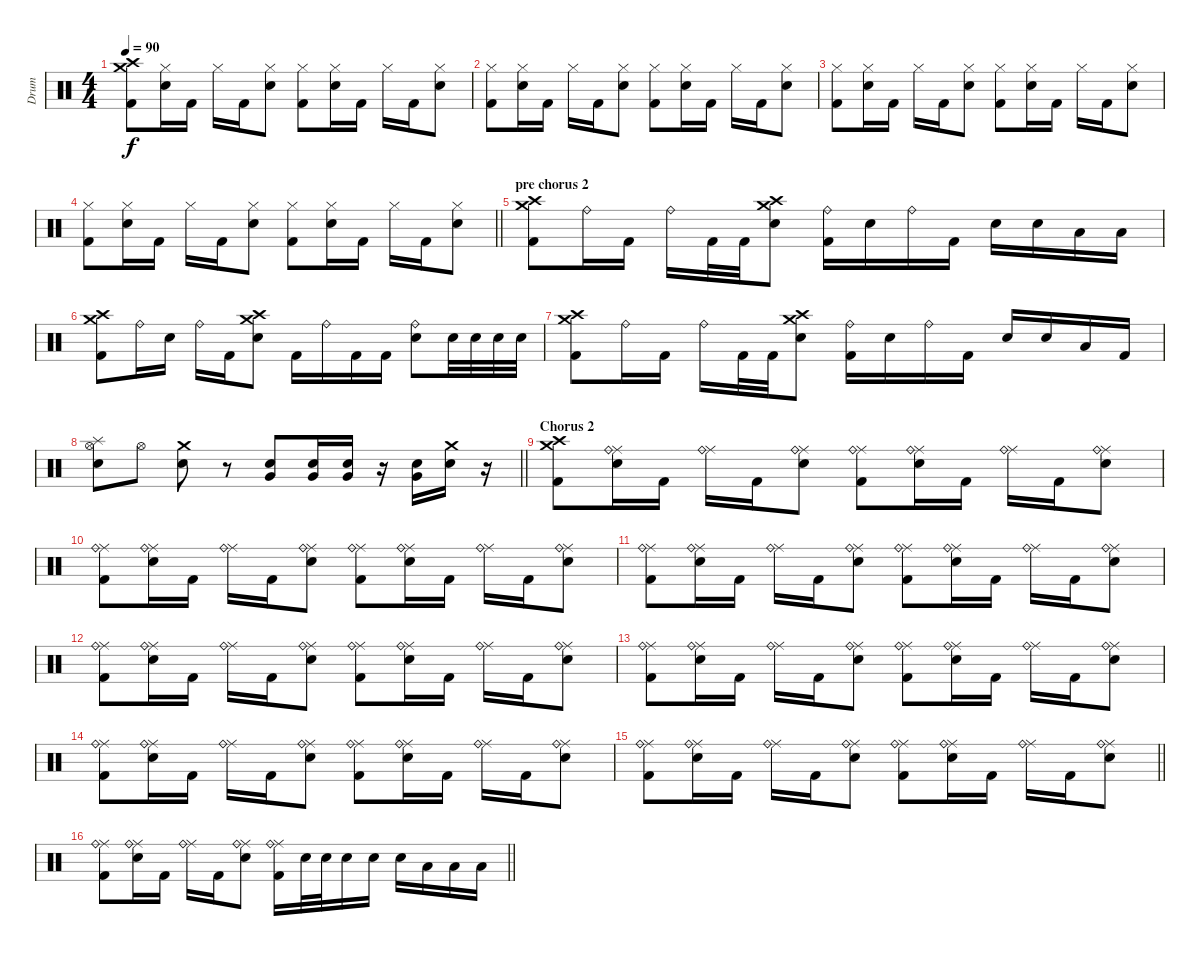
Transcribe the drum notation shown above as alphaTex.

\track ("Drum" "Drum") {instrument percussion}
\staff {score}
\articulation defaults
\ts (4 4)
\tempo 90
\clef neutral
\ks c
("Crash medium (hit)" "Crash high (hit)" "Kick (hit) 2").8{dy f} ("Hi-Hat (closed)" "Snare (hit) 2").16 "Kick (hit) 2".16 "Hi-Hat (closed)".16 "Kick (hit) 2".16 ("Hi-Hat (closed)" "Snare (hit) 2").8 ("Hi-Hat (closed)" "Kick (hit) 2").8 ("Hi-Hat (closed)" "Snare (hit) 2").16 "Kick (hit) 2".16 "Hi-Hat (closed)".16 "Kick (hit) 2".16 ("Hi-Hat (closed)" "Snare (hit) 2").8 |
("Hi-Hat (closed)" "Kick (hit) 2").8 ("Hi-Hat (closed)" "Snare (hit) 2").16 "Kick (hit) 2".16 "Hi-Hat (closed)".16 "Kick (hit) 2".16 ("Hi-Hat (closed)" "Snare (hit) 2").8 ("Hi-Hat (closed)" "Kick (hit) 2").8 ("Hi-Hat (closed)" "Snare (hit) 2").16 "Kick (hit) 2".16 "Hi-Hat (closed)".16 "Kick (hit) 2".16 ("Hi-Hat (closed)" "Snare (hit) 2").8 |
("Hi-Hat (closed)" "Kick (hit) 2").8 ("Hi-Hat (closed)" "Snare (hit) 2").16 "Kick (hit) 2".16 "Hi-Hat (closed)".16 "Kick (hit) 2".16 ("Hi-Hat (closed)" "Snare (hit) 2").8 ("Hi-Hat (closed)" "Kick (hit) 2").8 ("Hi-Hat (closed)" "Snare (hit) 2").16 "Kick (hit) 2".16 "Hi-Hat (closed)".16 "Kick (hit) 2".16 ("Hi-Hat (closed)" "Snare (hit) 2").8 |
\barLineRight lightlight
("Hi-Hat (closed)" "Kick (hit) 2").8 ("Hi-Hat (closed)" "Snare (hit) 2").16 "Kick (hit) 2".16 "Hi-Hat (closed)".16 "Kick (hit) 2".16 ("Hi-Hat (closed)" "Snare (hit) 2").8 ("Hi-Hat (closed)" "Kick (hit) 2").8 ("Hi-Hat (closed)" "Snare (hit) 2").16 "Kick (hit) 2".16 "Hi-Hat (closed)".16 "Kick (hit) 2".16 ("Hi-Hat (closed)" "Snare (hit) 2").8 |
\section ("" "pre chorus 2")
("Crash medium (hit)" "Crash high (hit)" "Kick (hit) 2").8 "Ride (bell)".16 "Kick (hit) 2".16 "Ride (bell)".16 "Kick (hit) 2".32 "Kick (hit) 2".32 ("Crash medium (hit)" "Crash high (hit)" "Snare (hit) 2").8 ("Ride (bell)" "Kick (hit) 2").16 "Snare (hit) 2".16 "Ride (bell)".16 "Kick (hit) 2".16 "Snare (hit) 2".16 "Snare (hit) 2".16 "Low Tom (hit)".16 "Low Tom (hit)".16 |
("Crash high (hit)" "Crash medium (hit)" "Kick (hit) 2").8 "Ride (bell)".16 "Snare (hit) 2".16 "Ride (bell)".16 "Kick (hit) 2".16 ("Crash medium (hit)" "Crash high (hit)" "Snare (hit) 2").8 "Kick (hit) 2".16 "Ride (bell)".16 "Kick (hit) 2".16 "Kick (hit) 2".16 ("Ride (bell)" "Snare (hit) 2").8 "Snare (hit) 2".32 "Snare (hit) 2".32 "Snare (hit) 2".32 "Snare (hit) 2".32 |
("Crash high (hit)" "Crash medium (hit)" "Kick (hit) 2").8 "Ride (bell)".16 "Kick (hit) 2".16 "Ride (bell)".16 "Kick (hit) 2".32 "Kick (hit) 2".32 ("Crash medium (hit)" "Crash high (hit)" "Snare (hit) 2").8 ("Ride (bell)" "Kick (hit) 2").16 "Snare (hit) 2".16 "Ride (bell)".16 "Kick (hit) 2".16 "Snare (hit) 2".16 "Snare (hit) 2".16 "Low Tom (hit)".16 "Kick (hit) 2".16 |
\barLineRight lightlight
("Hi-Hat (open)" "Splash (hit)" "Snare (hit) 2").8 "Hi-Hat (open)".8 ("Crash medium (hit)" "Snare (hit) 2").8 r.8 ("Very Low Tom (hit)" "Snare (hit) 2").8 ("Very Low Tom (hit)" "Snare (hit) 2").16 ("Very Low Tom (hit)" "Snare (hit) 2").16 r.16 ("Very Low Tom (hit)" "Snare (hit) 2").16 ("Crash medium (hit)" "Snare (hit) 2").16 r.16 |
\section ("" "Chorus 2")
("Crash medium (hit)" "Crash high (hit)" "Kick (hit) 2").8 ("Ride (middle)" "Ride (bell)" "Snare (hit) 2").16 "Kick (hit) 2".16 ("Ride (middle)" "Ride (bell)").16 "Kick (hit) 2".16 ("Ride (middle)" "Ride (bell)" "Snare (hit) 2").8 ("Ride (middle)" "Ride (bell)" "Kick (hit) 2").8 ("Ride (middle)" "Ride (bell)" "Snare (hit) 2").16 "Kick (hit) 2".16 ("Ride (middle)" "Ride (bell)").16 "Kick (hit) 2".16 ("Ride (middle)" "Ride (bell)" "Snare (hit) 2").8 |
("Ride (middle)" "Ride (bell)" "Kick (hit) 2").8 ("Ride (middle)" "Ride (bell)" "Snare (hit) 2").16 "Kick (hit) 2".16 ("Ride (middle)" "Ride (bell)").16 "Kick (hit) 2".16 ("Ride (middle)" "Ride (bell)" "Snare (hit) 2").8 ("Ride (middle)" "Ride (bell)" "Kick (hit) 2").8 ("Ride (middle)" "Ride (bell)" "Snare (hit) 2").16 "Kick (hit) 2".16 ("Ride (middle)" "Ride (bell)").16 "Kick (hit) 2".16 ("Ride (middle)" "Ride (bell)" "Snare (hit) 2").8 |
("Ride (middle)" "Ride (bell)" "Kick (hit) 2").8 ("Ride (middle)" "Ride (bell)" "Snare (hit) 2").16 "Kick (hit) 2".16 ("Ride (middle)" "Ride (bell)").16 "Kick (hit) 2".16 ("Ride (middle)" "Ride (bell)" "Snare (hit) 2").8 ("Ride (middle)" "Ride (bell)" "Kick (hit) 2").8 ("Ride (middle)" "Ride (bell)" "Snare (hit) 2").16 "Kick (hit) 2".16 ("Ride (middle)" "Ride (bell)").16 "Kick (hit) 2".16 ("Ride (middle)" "Ride (bell)" "Snare (hit) 2").8 |
("Ride (middle)" "Ride (bell)" "Kick (hit) 2").8 ("Ride (middle)" "Ride (bell)" "Snare (hit) 2").16 "Kick (hit) 2".16 ("Ride (middle)" "Ride (bell)").16 "Kick (hit) 2".16 ("Ride (middle)" "Ride (bell)" "Snare (hit) 2").8 ("Ride (middle)" "Ride (bell)" "Kick (hit) 2").8 ("Ride (middle)" "Ride (bell)" "Snare (hit) 2").16 "Kick (hit) 2".16 ("Ride (middle)" "Ride (bell)").16 "Kick (hit) 2".16 ("Ride (middle)" "Ride (bell)" "Snare (hit) 2").8 |
("Ride (middle)" "Ride (bell)" "Kick (hit) 2").8 ("Ride (middle)" "Ride (bell)" "Snare (hit) 2").16 "Kick (hit) 2".16 ("Ride (middle)" "Ride (bell)").16 "Kick (hit) 2".16 ("Ride (middle)" "Ride (bell)" "Snare (hit) 2").8 ("Ride (middle)" "Ride (bell)" "Kick (hit) 2").8 ("Ride (middle)" "Ride (bell)" "Snare (hit) 2").16 "Kick (hit) 2".16 ("Ride (middle)" "Ride (bell)").16 "Kick (hit) 2".16 ("Ride (middle)" "Ride (bell)" "Snare (hit) 2").8 |
("Ride (middle)" "Ride (bell)" "Kick (hit) 2").8 ("Ride (middle)" "Ride (bell)" "Snare (hit) 2").16 "Kick (hit) 2".16 ("Ride (middle)" "Ride (bell)").16 "Kick (hit) 2".16 ("Ride (middle)" "Ride (bell)" "Snare (hit) 2").8 ("Ride (middle)" "Ride (bell)" "Kick (hit) 2").8 ("Ride (middle)" "Ride (bell)" "Snare (hit) 2").16 "Kick (hit) 2".16 ("Ride (middle)" "Ride (bell)").16 "Kick (hit) 2".16 ("Ride (middle)" "Ride (bell)" "Snare (hit) 2").8 |
\barLineRight lightlight
("Ride (middle)" "Ride (bell)" "Kick (hit) 2").8 ("Ride (middle)" "Ride (bell)" "Snare (hit) 2").16 "Kick (hit) 2".16 ("Ride (middle)" "Ride (bell)").16 "Kick (hit) 2".16 ("Ride (middle)" "Ride (bell)" "Snare (hit) 2").8 ("Ride (middle)" "Ride (bell)" "Kick (hit) 2").8 ("Ride (middle)" "Ride (bell)" "Snare (hit) 2").16 "Kick (hit) 2".16 ("Ride (middle)" "Ride (bell)").16 "Kick (hit) 2".16 ("Ride (middle)" "Ride (bell)" "Snare (hit) 2").8 |
\section ("" "")
\barLineRight lightlight
("Ride (middle)" "Ride (bell)" "Kick (hit) 2").8 ("Ride (middle)" "Ride (bell)" "Snare (hit) 2").16 "Kick (hit) 2".16 ("Ride (middle)" "Ride (bell)").16 "Kick (hit) 2".16 ("Ride (middle)" "Ride (bell)" "Snare (hit) 2").8 ("Ride (middle)" "Ride (bell)" "Kick (hit) 2").16 "Snare (hit) 2".32 "Snare (hit) 2".32 "Snare (hit) 2".16 "Snare (hit) 2".16 "Snare (hit) 2".16 "Low Tom (hit)".16 "Low Tom (hit)".16 "Low Floor Tom (hit)".16
